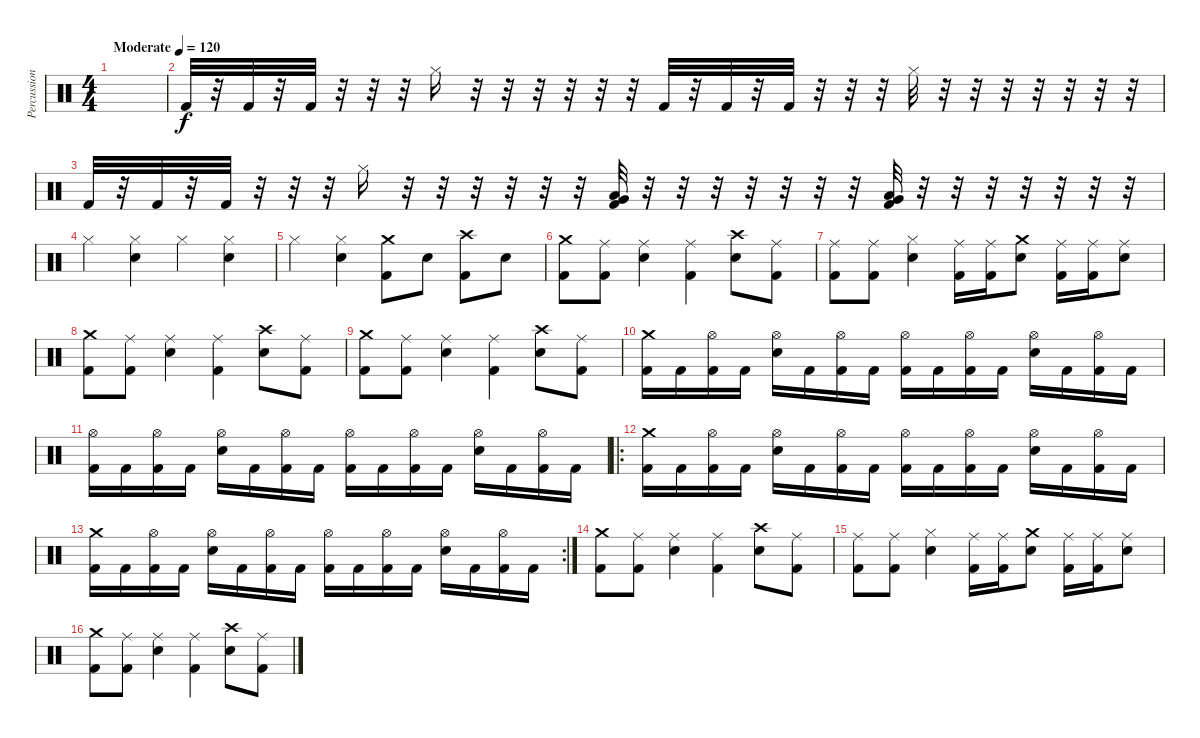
\track ("Percussion" "Percussion") {instrument percussion}
\staff {score}
\articulation defaults
\ts (4 4)
\tempo (120 "Moderate")
\clef neutral
\ks c
|
"Kick (hit) 2".32 r.32 "Kick (hit) 2".32 r.32 "Kick (hit) 2".32 r.32 r.32 r.32 "Hi-Hat (closed)".16 r.32 r.32 r.32 r.32 r.32 r.32 "Kick (hit) 2".32 r.32 "Kick (hit) 2".32 r.32 "Kick (hit) 2".32 r.32 r.32 r.32 "Hi-Hat (closed)".32 r.32 r.32 r.32 r.32 r.32 r.32 r.32 |
"Kick (hit) 2".32 r.32 "Kick (hit) 2".32 r.32 "Kick (hit) 2".32 r.32 r.32 r.32 "Hi-Hat (closed)".16 r.32 r.32 r.32 r.32 r.32 r.32 ("Very Low Tom (hit)" "Low Floor Tom (hit)" "Kick (hit) 2").32 r.32 r.32 r.32 r.32 r.32 r.32 r.32 ("Very Low Tom (hit)" "Low Floor Tom (hit)" "Kick (hit) 2").32 r.32 r.32 r.32 r.32 r.32 r.32 r.32 |
"Hi-Hat (closed)".4 ("Hi-Hat (closed)" "Snare (hit) 2").4 "Hi-Hat (closed)".4 ("Hi-Hat (closed)" "Snare (hit) 2").4 |
"Hi-Hat (closed)".4 ("Hi-Hat (closed)" "Snare (hit) 2").4 ("Crash medium (hit)" "Kick (hit) 2").8 "Snare (hit) 2".8 ("Crash high (hit)" "Kick (hit) 2").8 "Snare (hit) 2".8 |
("Crash medium (hit)" "Kick (hit) 2").8 ("Ride (middle)" "Kick (hit) 2").8 ("Ride (middle)" "Snare (hit) 2").4 ("Ride (middle)" "Kick (hit) 2").4 ("Crash high (hit)" "Snare (hit) 2").8 ("Ride (middle)" "Kick (hit) 2").8 |
("Ride (middle)" "Kick (hit) 2").8 ("Ride (middle)" "Kick (hit) 2").8 ("Hi-Hat (closed)" "Snare (hit) 2").4 ("Ride (middle)" "Kick (hit) 2").16 ("Ride (middle)" "Kick (hit) 2").16 ("Crash medium (hit)" "Snare (hit) 2").8 ("Ride (middle)" "Kick (hit) 2").16 ("Ride (middle)" "Kick (hit) 2").16 ("Ride (middle)" "Snare (hit) 2").8 |
("Crash medium (hit)" "Kick (hit) 2").8 ("Ride (middle)" "Kick (hit) 2").8 ("Ride (middle)" "Snare (hit) 2").4 ("Ride (middle)" "Kick (hit) 2").4 ("Crash high (hit)" "Snare (hit) 2").8 ("Ride (middle)" "Kick (hit) 2").8 |
("Crash medium (hit)" "Kick (hit) 2").8 ("Ride (middle)" "Kick (hit) 2").8 ("Ride (middle)" "Snare (hit) 2").4 ("Ride (middle)" "Kick (hit) 2").4 ("Crash high (hit)" "Snare (hit) 2").8 ("Ride (middle)" "Kick (hit) 2").8 |
("Crash medium (hit)" "Kick (hit) 2").16 "Kick (hit) 2".16 ("Hi-Hat (open)" "Kick (hit) 2").16 "Kick (hit) 2".16 ("Hi-Hat (open)" "Snare (hit) 2").16 "Kick (hit) 2".16 ("Hi-Hat (open)" "Kick (hit) 2").16 "Kick (hit) 2".16 ("Hi-Hat (open)" "Kick (hit) 2").16 "Kick (hit) 2".16 ("Hi-Hat (open)" "Kick (hit) 2").16 "Kick (hit) 2".16 ("Hi-Hat (open)" "Snare (hit) 2").16 "Kick (hit) 2".16 ("Hi-Hat (open)" "Kick (hit) 2").16 "Kick (hit) 2".16 |
("Hi-Hat (open)" "Kick (hit) 2").16 "Kick (hit) 2".16 ("Hi-Hat (open)" "Kick (hit) 2").16 "Kick (hit) 2".16 ("Hi-Hat (open)" "Snare (hit) 2").16 "Kick (hit) 2".16 ("Hi-Hat (open)" "Kick (hit) 2").16 "Kick (hit) 2".16 ("Hi-Hat (open)" "Kick (hit) 2").16 "Kick (hit) 2".16 ("Hi-Hat (open)" "Kick (hit) 2").16 "Kick (hit) 2".16 ("Hi-Hat (open)" "Snare (hit) 2").16 "Kick (hit) 2".16 ("Hi-Hat (open)" "Kick (hit) 2").16 "Kick (hit) 2".16 |
\ro
("Crash medium (hit)" "Kick (hit) 2").16 "Kick (hit) 2".16 ("Hi-Hat (open)" "Kick (hit) 2").16 "Kick (hit) 2".16 ("Hi-Hat (open)" "Snare (hit) 2").16 "Kick (hit) 2".16 ("Hi-Hat (open)" "Kick (hit) 2").16 "Kick (hit) 2".16 ("Hi-Hat (open)" "Kick (hit) 2").16 "Kick (hit) 2".16 ("Hi-Hat (open)" "Kick (hit) 2").16 "Kick (hit) 2".16 ("Hi-Hat (open)" "Snare (hit) 2").16 "Kick (hit) 2".16 ("Hi-Hat (open)" "Kick (hit) 2").16 "Kick (hit) 2".16 |
\rc 2
("Crash medium (hit)" "Kick (hit) 2").16 "Kick (hit) 2".16 ("Hi-Hat (open)" "Kick (hit) 2").16 "Kick (hit) 2".16 ("Hi-Hat (open)" "Snare (hit) 2").16 "Kick (hit) 2".16 ("Hi-Hat (open)" "Kick (hit) 2").16 "Kick (hit) 2".16 ("Hi-Hat (open)" "Kick (hit) 2").16 "Kick (hit) 2".16 ("Hi-Hat (open)" "Kick (hit) 2").16 "Kick (hit) 2".16 ("Hi-Hat (open)" "Snare (hit) 2").16 "Kick (hit) 2".16 ("Hi-Hat (open)" "Kick (hit) 2").16 "Kick (hit) 2".16 |
("Crash medium (hit)" "Kick (hit) 2").8 ("Ride (middle)" "Kick (hit) 2").8 ("Ride (middle)" "Snare (hit) 2").4 ("Ride (middle)" "Kick (hit) 2").4 ("Crash high (hit)" "Snare (hit) 2").8 ("Ride (middle)" "Kick (hit) 2").8 |
("Ride (middle)" "Kick (hit) 2").8 ("Ride (middle)" "Kick (hit) 2").8 ("Hi-Hat (closed)" "Snare (hit) 2").4 ("Ride (middle)" "Kick (hit) 2").16 ("Ride (middle)" "Kick (hit) 2").16 ("Crash medium (hit)" "Snare (hit) 2").8 ("Ride (middle)" "Kick (hit) 2").16 ("Ride (middle)" "Kick (hit) 2").16 ("Ride (middle)" "Snare (hit) 2").8 |
("Crash medium (hit)" "Kick (hit) 2").8 ("Ride (middle)" "Kick (hit) 2").8 ("Ride (middle)" "Snare (hit) 2").4 ("Ride (middle)" "Kick (hit) 2").4 ("Crash high (hit)" "Snare (hit) 2").8 ("Ride (middle)" "Kick (hit) 2").8
